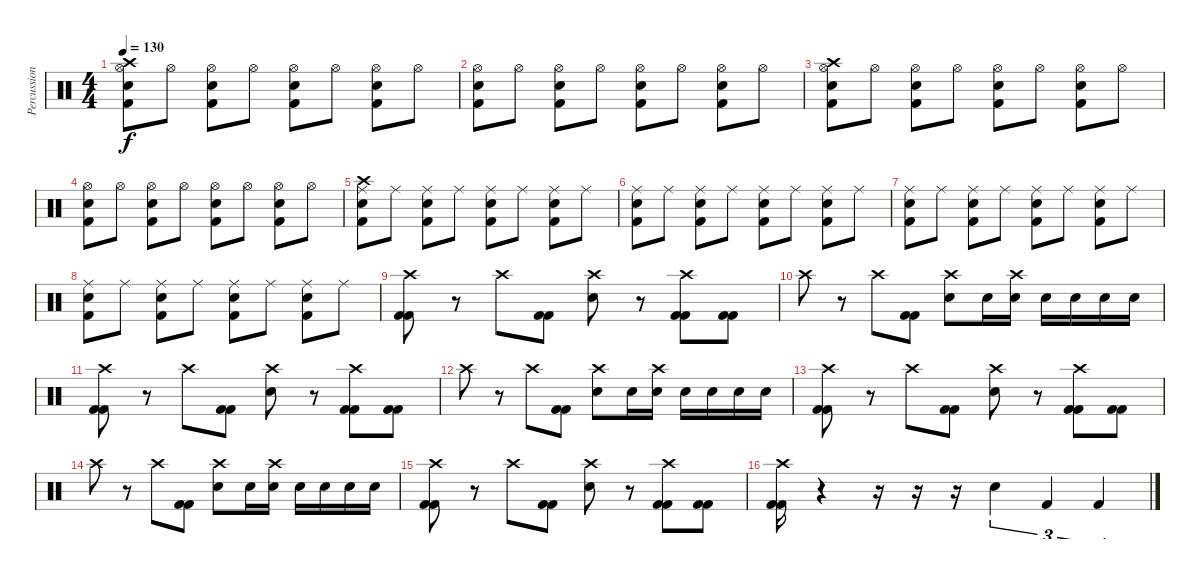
\track ("Percussion" "Percussion") {instrument percussion}
\staff {score}
\articulation defaults
\ts (4 4)
\tempo 130
\clef neutral
\ks c
("Hi-Hat (open)" "Crash high (hit)" "Electric Snare (hit)" "Kick (hit) 2").8{dy f} "Hi-Hat (open)".8 ("Hi-Hat (open)" "Electric Snare (hit)" "Kick (hit) 2").8 "Hi-Hat (open)".8 ("Hi-Hat (open)" "Electric Snare (hit)" "Kick (hit) 2").8 "Hi-Hat (open)".8 ("Hi-Hat (open)" "Electric Snare (hit)" "Kick (hit) 2").8 "Hi-Hat (open)".8 |
("Hi-Hat (open)" "Electric Snare (hit)" "Kick (hit) 2").8 "Hi-Hat (open)".8 ("Hi-Hat (open)" "Electric Snare (hit)" "Kick (hit) 2").8 "Hi-Hat (open)".8 ("Hi-Hat (open)" "Electric Snare (hit)" "Kick (hit) 2").8 "Hi-Hat (open)".8 ("Hi-Hat (open)" "Electric Snare (hit)" "Kick (hit) 2").8 "Hi-Hat (open)".8 |
("Hi-Hat (open)" "Crash high (hit)" "Electric Snare (hit)" "Kick (hit) 2").8 "Hi-Hat (open)".8 ("Hi-Hat (open)" "Electric Snare (hit)" "Kick (hit) 2").8 "Hi-Hat (open)".8 ("Hi-Hat (open)" "Electric Snare (hit)" "Kick (hit) 2").8 "Hi-Hat (open)".8 ("Hi-Hat (open)" "Electric Snare (hit)" "Kick (hit) 2").8 "Hi-Hat (open)".8 |
("Hi-Hat (open)" "Electric Snare (hit)" "Kick (hit) 2").8 "Hi-Hat (open)".8 ("Hi-Hat (open)" "Electric Snare (hit)" "Kick (hit) 2").8 "Hi-Hat (open)".8 ("Hi-Hat (open)" "Electric Snare (hit)" "Kick (hit) 2").8 "Hi-Hat (open)".8 ("Hi-Hat (open)" "Electric Snare (hit)" "Kick (hit) 2").8 "Hi-Hat (open)".8 |
("Ride (middle)" "Crash high (hit)" "Electric Snare (hit)" "Kick (hit) 2").8 "Ride (middle)".8 ("Ride (middle)" "Electric Snare (hit)" "Kick (hit) 2").8 "Ride (middle)".8 ("Ride (middle)" "Electric Snare (hit)" "Kick (hit) 2").8 "Ride (middle)".8 ("Ride (middle)" "Electric Snare (hit)" "Kick (hit) 2").8 "Ride (middle)".8 |
("Ride (middle)" "Electric Snare (hit)" "Kick (hit) 2").8 "Ride (middle)".8 ("Ride (middle)" "Electric Snare (hit)" "Kick (hit) 2").8 "Ride (middle)".8 ("Ride (middle)" "Electric Snare (hit)" "Kick (hit) 2").8 "Ride (middle)".8 ("Ride (middle)" "Electric Snare (hit)" "Kick (hit) 2").8 "Ride (middle)".8 |
("Ride (middle)" "Electric Snare (hit)" "Kick (hit) 2").8 "Ride (middle)".8 ("Ride (middle)" "Electric Snare (hit)" "Kick (hit) 2").8 "Ride (middle)".8 ("Ride (middle)" "Electric Snare (hit)" "Kick (hit) 2").8 "Ride (middle)".8 ("Ride (middle)" "Electric Snare (hit)" "Kick (hit) 2").8 "Ride (middle)".8 |
("Ride (middle)" "Electric Snare (hit)" "Kick (hit) 2").8 "Ride (middle)".8 ("Ride (middle)" "Electric Snare (hit)" "Kick (hit) 2").8 "Ride (middle)".8 ("Ride (middle)" "Electric Snare (hit)" "Kick (hit) 2").8 "Ride (middle)".8 ("Ride (middle)" "Electric Snare (hit)" "Kick (hit) 2").8 "Ride (middle)".8 |
("Crash high (hit)" "Kick (hit) 2" "Kick (hit) 2").8 r.8 "Crash high (hit)".8 ("Kick (hit) 2" "Kick (hit) 2").8 ("Crash high (hit)" "Electric Snare (hit)").8 r.8 ("Crash high (hit)" "Kick (hit) 2" "Kick (hit) 2").8 ("Kick (hit) 2" "Kick (hit) 2").8 |
"Crash high (hit)".8 r.8 "Crash high (hit)".8 ("Kick (hit) 2" "Kick (hit) 2").8 ("Crash high (hit)" "Electric Snare (hit)").8 "Electric Snare (hit)".16 ("Crash high (hit)" "Electric Snare (hit)").16 "Electric Snare (hit)".16 "Electric Snare (hit)".16 "Electric Snare (hit)".16 "Electric Snare (hit)".16 |
("Crash high (hit)" "Kick (hit) 2" "Kick (hit) 2").8 r.8 "Crash high (hit)".8 ("Kick (hit) 2" "Kick (hit) 2").8 ("Crash high (hit)" "Electric Snare (hit)").8 r.8 ("Crash high (hit)" "Kick (hit) 2" "Kick (hit) 2").8 ("Kick (hit) 2" "Kick (hit) 2").8 |
"Crash high (hit)".8 r.8 "Crash high (hit)".8 ("Kick (hit) 2" "Kick (hit) 2").8 ("Crash high (hit)" "Electric Snare (hit)").8 "Electric Snare (hit)".16 ("Crash high (hit)" "Electric Snare (hit)").16 "Electric Snare (hit)".16 "Electric Snare (hit)".16 "Electric Snare (hit)".16 "Electric Snare (hit)".16 |
("Crash high (hit)" "Kick (hit) 2" "Kick (hit) 2").8 r.8 "Crash high (hit)".8 ("Kick (hit) 2" "Kick (hit) 2").8 ("Crash high (hit)" "Electric Snare (hit)").8 r.8 ("Crash high (hit)" "Kick (hit) 2" "Kick (hit) 2").8 ("Kick (hit) 2" "Kick (hit) 2").8 |
"Crash high (hit)".8 r.8 "Crash high (hit)".8 ("Kick (hit) 2" "Kick (hit) 2").8 ("Crash high (hit)" "Electric Snare (hit)").8 "Electric Snare (hit)".16 ("Crash high (hit)" "Electric Snare (hit)").16 "Electric Snare (hit)".16 "Electric Snare (hit)".16 "Electric Snare (hit)".16 "Electric Snare (hit)".16 |
("Crash high (hit)" "Kick (hit) 2" "Kick (hit) 2").8 r.8 "Crash high (hit)".8 ("Kick (hit) 2" "Kick (hit) 2").8 ("Crash high (hit)" "Electric Snare (hit)").8 r.8 ("Crash high (hit)" "Kick (hit) 2" "Kick (hit) 2").8 ("Kick (hit) 2" "Kick (hit) 2").8 |
("Crash high (hit)" "Kick (hit) 2" "Kick (hit) 2").16 r.4 r.16 r.16 r.16 "Electric Snare (hit)".4{tu (3 2)} "Kick (hit) 2".4{tu (3 2)} "Kick (hit) 2".4{tu (3 2)}
